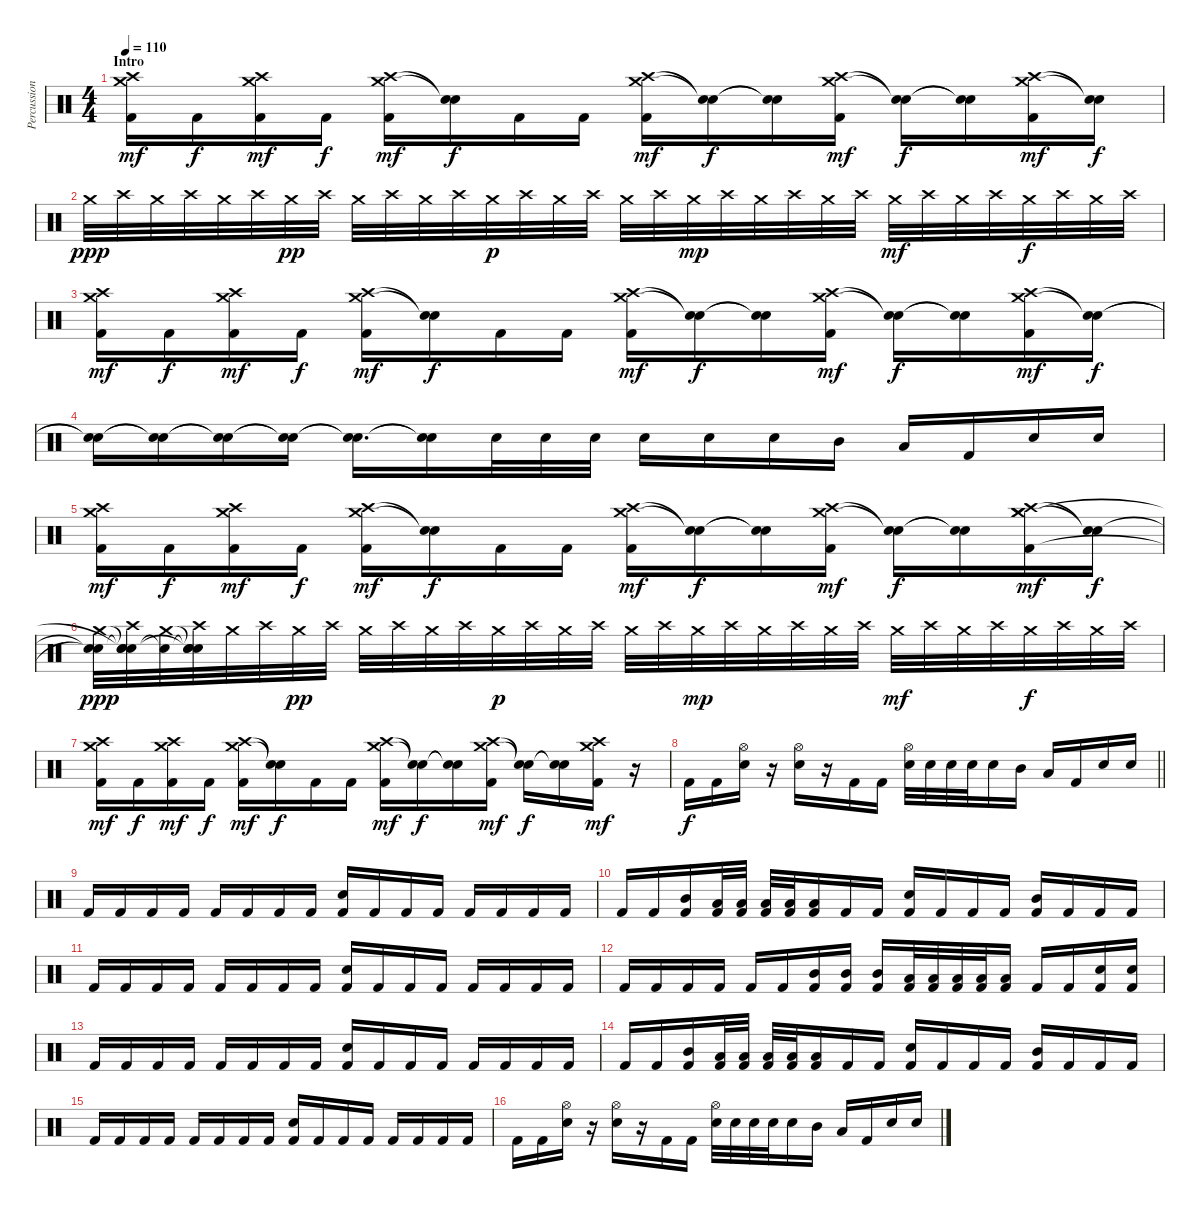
\track ("Percussion" "Percussion") {instrument percussion}
\staff {score}
\articulation defaults
\ts (4 4)
\section ("" "Intro")
\tempo 110
\clef neutral
\ks c
("Crash high (hit)" "Crash medium (hit)" "Kick (hit) 2").16{dy mf} "Kick (hit) 2".16{dy f} ("Crash high (hit)" "Crash medium (hit)" "Kick (hit) 2").16{dy mf} "Kick (hit) 2".16{dy f} ("Crash high (hit)" "Crash medium (hit)" "Kick (hit) 2").16{dy mf} ("Snare (hit)"{t} "Snare (hit)"{t}).16{dy f} "Kick (hit) 2".16 "Kick (hit) 2".16 ("Crash high (hit)" "Crash medium (hit)" "Kick (hit) 2").16{dy mf} ("Snare (hit)"{t} "Snare (hit)"{t}).16{dy f} ("Snare (hit)"{t} "Snare (hit)"{t}).16 ("Crash high (hit)" "Crash medium (hit)" "Kick (hit) 2").16{dy mf} ("Snare (hit)"{t} "Snare (hit)"{t}).16{dy f} ("Snare (hit)"{t} "Snare (hit)"{t}).16 ("Crash high (hit)" "Crash medium (hit)" "Kick (hit) 2").16{dy mf} ("Snare (hit)"{t} "Snare (hit)"{t}).16{dy f} |
"Crash medium (hit)".32{dy ppp} "Crash high (hit)".32 "Crash medium (hit)".32 "Crash high (hit)".32 "Crash medium (hit)".32 "Crash high (hit)".32 "Crash medium (hit)".32{dy pp} "Crash high (hit)".32 "Crash medium (hit)".32 "Crash high (hit)".32 "Crash medium (hit)".32 "Crash high (hit)".32 "Crash medium (hit)".32{dy p} "Crash high (hit)".32 "Crash medium (hit)".32 "Crash high (hit)".32 "Crash medium (hit)".32 "Crash high (hit)".32 "Crash medium (hit)".32{dy mp} "Crash high (hit)".32 "Crash medium (hit)".32 "Crash high (hit)".32 "Crash medium (hit)".32 "Crash high (hit)".32 "Crash medium (hit)".32{dy mf} "Crash high (hit)".32 "Crash medium (hit)".32 "Crash high (hit)".32 "Crash medium (hit)".32{dy f} "Crash high (hit)".32 "Crash medium (hit)".32 "Crash high (hit)".32 |
("Crash high (hit)" "Crash medium (hit)" "Kick (hit) 2").16{dy mf} "Kick (hit) 2".16{dy f} ("Crash high (hit)" "Crash medium (hit)" "Kick (hit) 2").16{dy mf} "Kick (hit) 2".16{dy f} ("Crash high (hit)" "Crash medium (hit)" "Kick (hit) 2").16{dy mf} ("Snare (hit)"{t} "Snare (hit)"{t}).16{dy f} "Kick (hit) 2".16 "Kick (hit) 2".16 ("Crash high (hit)" "Crash medium (hit)" "Kick (hit) 2").16{dy mf} ("Snare (hit)"{t} "Snare (hit)"{t}).16{dy f} ("Snare (hit)"{t} "Snare (hit)"{t}).16 ("Crash high (hit)" "Crash medium (hit)" "Kick (hit) 2").16{dy mf} ("Snare (hit)"{t} "Snare (hit)"{t}).16{dy f} ("Snare (hit)"{t} "Snare (hit)"{t}).16 ("Crash high (hit)" "Crash medium (hit)" "Kick (hit) 2").16{dy mf} ("Snare (hit)"{t} "Snare (hit)"{t}).16{dy f} |
("Snare (hit)"{t} "Snare (hit)"{t}).16 ("Snare (hit)"{t} "Snare (hit)"{t}).16 ("Snare (hit)"{t} "Snare (hit)"{t}).16 ("Snare (hit)"{t} "Snare (hit)"{t}).16 ("Snare (hit)"{t} "Snare (hit)"{t}).16{d} ("Snare (hit)"{t} "Snare (hit)"{t}).16 "Snare (hit) 2".32 "Snare (hit) 2".32 "Snare (hit) 2".32 "Snare (hit) 2".16 "Snare (hit) 2".16 "Snare (hit) 2".16 "Mid Tom (hit)".16 "Low Tom (hit)".16 "Kick (hit) 2".16 "Snare (hit) 2".16 "Snare (hit) 2".16 |
("Crash high (hit)" "Crash medium (hit)" "Kick (hit) 2").16{dy mf} "Kick (hit) 2".16{dy f} ("Crash high (hit)" "Crash medium (hit)" "Kick (hit) 2").16{dy mf} "Kick (hit) 2".16{dy f} ("Crash high (hit)" "Crash medium (hit)" "Kick (hit) 2").16{dy mf} ("Snare (hit)"{t} "Snare (hit)"{t}).16{dy f} "Kick (hit) 2".16 "Kick (hit) 2".16 ("Crash high (hit)" "Crash medium (hit)" "Kick (hit) 2").16{dy mf} ("Snare (hit)"{t} "Snare (hit)"{t}).16{dy f} ("Snare (hit)"{t} "Snare (hit)"{t}).16 ("Crash high (hit)" "Crash medium (hit)" "Kick (hit) 2").16{dy mf} ("Snare (hit)"{t} "Snare (hit)"{t}).16{dy f} ("Snare (hit)"{t} "Snare (hit)"{t}).16 ("Crash high (hit)" "Crash medium (hit)" "Kick (hit) 2" "Crash medium (hit)").16{dy mf} ("Snare (hit)"{t} "Snare (hit)"{t}).16{dy f} |
("Snare (hit)"{t} "Crash medium (hit)" "Snare (hit)"{t}).32{dy ppp} ("Snare (hit)"{t} "Snare (hit)"{t} "Crash high (hit)" "Snare (hit)"{t}).32 ("Crash medium (hit)" "Snare (hit)"{t}).32 ("Snare (hit)"{t} "Snare (hit)"{t} "Crash high (hit)" "Snare (hit)"{t}).32 "Crash medium (hit)".32 "Crash high (hit)".32 "Crash medium (hit)".32{dy pp} "Crash high (hit)".32 "Crash medium (hit)".32 "Crash high (hit)".32 "Crash medium (hit)".32 "Crash high (hit)".32 "Crash medium (hit)".32{dy p} "Crash high (hit)".32 "Crash medium (hit)".32 "Crash high (hit)".32 "Crash medium (hit)".32 "Crash high (hit)".32 "Crash medium (hit)".32{dy mp} "Crash high (hit)".32 "Crash medium (hit)".32 "Crash high (hit)".32 "Crash medium (hit)".32 "Crash high (hit)".32 "Crash medium (hit)".32{dy mf} "Crash high (hit)".32 "Crash medium (hit)".32 "Crash high (hit)".32 "Crash medium (hit)".32{dy f} "Crash high (hit)".32 "Crash medium (hit)".32 "Crash high (hit)".32 |
("Crash high (hit)" "Crash medium (hit)" "Kick (hit) 2").16{dy mf} "Kick (hit) 2".16{dy f} ("Crash high (hit)" "Crash medium (hit)" "Kick (hit) 2").16{dy mf} "Kick (hit) 2".16{dy f} ("Crash high (hit)" "Crash medium (hit)" "Kick (hit) 2").16{dy mf} ("Snare (hit)"{t} "Snare (hit)"{t}).16{dy f} "Kick (hit) 2".16 "Kick (hit) 2".16 ("Crash high (hit)" "Crash medium (hit)" "Kick (hit) 2").16{dy mf} ("Snare (hit)"{t} "Snare (hit)"{t}).16{dy f} ("Snare (hit)"{t} "Snare (hit)"{t}).16 ("Crash high (hit)" "Crash medium (hit)" "Kick (hit) 2").16{dy mf} ("Snare (hit)"{t} "Snare (hit)"{t}).16{dy f} ("Snare (hit)"{t} "Snare (hit)"{t}).16 ("Crash high (hit)" "Crash medium (hit)" "Kick (hit) 2").16{dy mf} r.16 |
\barLineRight lightlight "Kick (hit) 2".16{dy f} "Kick (hit) 2".16
("Snare (hit) 2" "Hi-Hat (open)").16 r.16 ("Snare (hit) 2" "Hi-Hat (open)").16 r.16 "Kick (hit) 2".16 "Kick (hit) 2".16 ("Snare (hit) 2" "Hi-Hat (open)").32 "Snare (hit) 2".32 "Snare (hit) 2".32 "Snare (hit) 2".32 "Snare (hit) 2".16 "Mid Tom (hit)".16 "Low Tom (hit)".16 "Kick (hit) 2".16 "Snare (hit) 2".16 "Snare (hit) 2".16 |
\section ("" "")
"Kick (hit) 2".16 "Kick (hit) 2".16 "Kick (hit) 2".16 "Kick (hit) 2".16 "Kick (hit) 2".16 "Kick (hit) 2".16 "Kick (hit) 2".16 "Kick (hit) 2".16 ("Snare (hit) 2" "Kick (hit) 2").16 "Kick (hit) 2".16 "Kick (hit) 2".16 "Kick (hit) 2".16 "Kick (hit) 2".16 "Kick (hit) 2".16 "Kick (hit) 2".16 "Kick (hit) 2".16 |
"Kick (hit) 2".16 "Kick (hit) 2".16 ("Mid Tom (hit)" "Kick (hit) 2").16 ("Low Tom (hit)" "Kick (hit) 2").32 ("Low Tom (hit)" "Kick (hit) 2").32 ("Low Tom (hit)" "Kick (hit) 2").32 ("Low Tom (hit)" "Kick (hit) 2").32 ("Low Tom (hit)" "Kick (hit) 2").16 "Kick (hit) 2".16 "Kick (hit) 2".16 ("Snare (hit) 2" "Kick (hit) 2").16 "Kick (hit) 2".16 "Kick (hit) 2".16 "Kick (hit) 2".16 ("Mid Tom (hit)" "Kick (hit) 2").16 "Kick (hit) 2".16 "Kick (hit) 2".16 "Kick (hit) 2".16 |
"Kick (hit) 2".16 "Kick (hit) 2".16 "Kick (hit) 2".16 "Kick (hit) 2".16 "Kick (hit) 2".16 "Kick (hit) 2".16 "Kick (hit) 2".16 "Kick (hit) 2".16 ("Snare (hit) 2" "Kick (hit) 2").16 "Kick (hit) 2".16 "Kick (hit) 2".16 "Kick (hit) 2".16 "Kick (hit) 2".16 "Kick (hit) 2".16 "Kick (hit) 2".16 "Kick (hit) 2".16 |
"Kick (hit) 2".16 "Kick (hit) 2".16 "Kick (hit) 2".16 "Kick (hit) 2".16 "Kick (hit) 2".16 "Kick (hit) 2".16 ("Mid Tom (hit)" "Kick (hit) 2").16 ("Mid Tom (hit)" "Kick (hit) 2").16 ("Mid Tom (hit)" "Kick (hit) 2").16 ("Low Tom (hit)" "Kick (hit) 2").32 ("Low Tom (hit)" "Kick (hit) 2").32 ("Low Tom (hit)" "Kick (hit) 2").32 ("Low Tom (hit)" "Kick (hit) 2").32 ("Low Tom (hit)" "Kick (hit) 2").16 "Kick (hit) 2".16 "Kick (hit) 2".16 ("Snare (hit) 2" "Kick (hit) 2").16 ("Snare (hit) 2" "Kick (hit) 2").16 |
"Kick (hit) 2".16 "Kick (hit) 2".16 "Kick (hit) 2".16 "Kick (hit) 2".16 "Kick (hit) 2".16 "Kick (hit) 2".16 "Kick (hit) 2".16 "Kick (hit) 2".16 ("Snare (hit) 2" "Kick (hit) 2").16 "Kick (hit) 2".16 "Kick (hit) 2".16 "Kick (hit) 2".16 "Kick (hit) 2".16 "Kick (hit) 2".16 "Kick (hit) 2".16 "Kick (hit) 2".16 |
"Kick (hit) 2".16 "Kick (hit) 2".16 ("Mid Tom (hit)" "Kick (hit) 2").16 ("Low Tom (hit)" "Kick (hit) 2").32 ("Low Tom (hit)" "Kick (hit) 2").32 ("Low Tom (hit)" "Kick (hit) 2").32 ("Low Tom (hit)" "Kick (hit) 2").32 ("Low Tom (hit)" "Kick (hit) 2").16 "Kick (hit) 2".16 "Kick (hit) 2".16 ("Snare (hit) 2" "Kick (hit) 2").16 "Kick (hit) 2".16 "Kick (hit) 2".16 "Kick (hit) 2".16 ("Mid Tom (hit)" "Kick (hit) 2").16 "Kick (hit) 2".16 "Kick (hit) 2".16 "Kick (hit) 2".16 |
"Kick (hit) 2".16 "Kick (hit) 2".16 "Kick (hit) 2".16 "Kick (hit) 2".16 "Kick (hit) 2".16 "Kick (hit) 2".16 "Kick (hit) 2".16 "Kick (hit) 2".16 ("Snare (hit) 2" "Kick (hit) 2").16 "Kick (hit) 2".16 "Kick (hit) 2".16 "Kick (hit) 2".16 "Kick (hit) 2".16 "Kick (hit) 2".16 "Kick (hit) 2".16 "Kick (hit) 2".16 |
"Kick (hit) 2".16 "Kick (hit) 2".16 ("Snare (hit) 2" "Hi-Hat (open)").16 r.16 ("Snare (hit) 2" "Hi-Hat (open)").16 r.16 "Kick (hit) 2".16 "Kick (hit) 2".16 ("Snare (hit) 2" "Hi-Hat (open)").32 "Snare (hit) 2".32 "Snare (hit) 2".32 "Snare (hit) 2".32 "Snare (hit) 2".16 "Mid Tom (hit)".16 "Low Tom (hit)".16 "Kick (hit) 2".16 "Snare (hit) 2".16 "Snare (hit) 2".16
